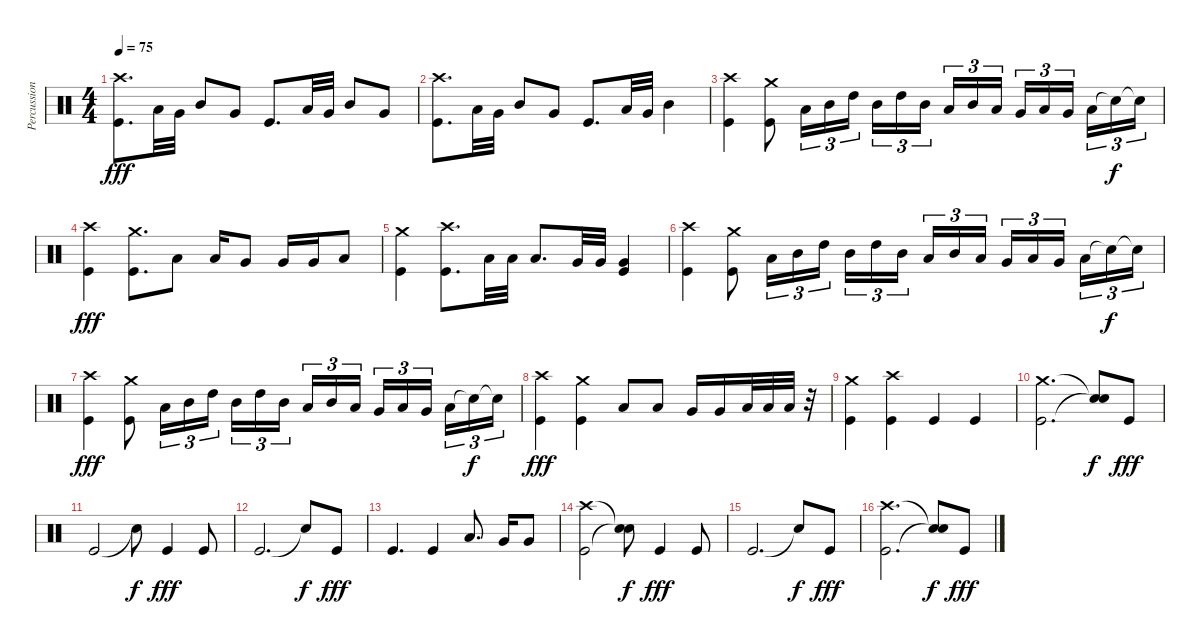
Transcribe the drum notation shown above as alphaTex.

\track ("Percussion" "Percussion") {instrument percussion}
\staff {score}
\articulation defaults
\ts (4 4)
\tempo 75
\clef neutral
\ks c
("Crash high (hit)" "Kick (hit)").8{d dy fff} "Low Floor Tom (hit)".32 "Very Low Tom (hit)".32 "Mid Tom (hit)".8 "Very Low Tom (hit)".8 "Kick (hit)".8{d} "Low Floor Tom (hit)".32 "Very Low Tom (hit)".32 "Mid Tom (hit)".8 "Very Low Tom (hit)".8 |
("Crash high (hit)" "Kick (hit)").8{d} "Low Floor Tom (hit)".32 "Very Low Tom (hit)".32 "Mid Tom (hit)".8 "Very Low Tom (hit)".8 "Kick (hit)".8{d} "Low Floor Tom (hit)".32 "Very Low Tom (hit)".32 "Mid Tom (hit)".4 |
("Crash high (hit)" "Kick (hit)").4{volume 16} ("Crash medium (hit)" "Kick (hit)").8 "Low Tom (hit)".16{tu (3 2)} "Mid Tom (hit)".16{tu (3 2)} "High Tom (hit)".16{tu (3 2)} "Mid Tom (hit)".16{tu (3 2)} "High Tom (hit)".16{tu (3 2)} "Mid Tom (hit)".16{tu (3 2)} "Low Tom (hit)".16{tu (3 2)} "Mid Tom (hit)".16{tu (3 2)} "Low Tom (hit)".16{tu (3 2)} "Very Low Tom (hit)".16{tu (3 2)} "Low Tom (hit)".16{tu (3 2)} "Very Low Tom (hit)".16{tu (3 2)} "Low Floor Tom (hit)".16{tu (3 2)} "Snare (hit)"{t}.16{tu (3 2) dy f} "Snare (hit)"{t}.16{tu (3 2)} |
("Crash high (hit)" "Kick (hit)").4{dy fff} ("Crash medium (hit)" "Kick (hit)").8{d} "Low Tom (hit)".8 "Low Tom (hit)".16 "Very Low Tom (hit)".8 "Very Low Tom (hit)".16 "Very Low Tom (hit)".16 "Low Floor Tom (hit)".8 |
("Crash medium (hit)" "Kick (hit)").4 ("Crash high (hit)" "Kick (hit)").8{d} "Low Tom (hit)".32 "Low Tom (hit)".32 "Low Tom (hit)".8{d} "Very Low Tom (hit)".32 "Very Low Tom (hit)".32 ("Very Low Tom (hit)" "Kick (hit)").4 |
("Crash high (hit)" "Kick (hit)").4 ("Crash medium (hit)" "Kick (hit)").8 "Low Tom (hit)".16{tu (3 2)} "Mid Tom (hit)".16{tu (3 2)} "High Tom (hit)".16{tu (3 2)} "Mid Tom (hit)".16{tu (3 2)} "High Tom (hit)".16{tu (3 2)} "Mid Tom (hit)".16{tu (3 2)} "Low Tom (hit)".16{tu (3 2)} "Mid Tom (hit)".16{tu (3 2)} "Low Tom (hit)".16{tu (3 2)} "Very Low Tom (hit)".16{tu (3 2)} "Low Tom (hit)".16{tu (3 2)} "Very Low Tom (hit)".16{tu (3 2)} "Low Floor Tom (hit)".16{tu (3 2)} "Snare (hit)"{t}.16{tu (3 2) dy f} "Snare (hit)"{t}.16{tu (3 2)} |
("Crash high (hit)" "Kick (hit)").4{dy fff} ("Crash medium (hit)" "Kick (hit)").8 "Low Tom (hit)".16{tu (3 2)} "Mid Tom (hit)".16{tu (3 2)} "High Tom (hit)".16{tu (3 2)} "Mid Tom (hit)".16{tu (3 2)} "High Tom (hit)".16{tu (3 2)} "Mid Tom (hit)".16{tu (3 2)} "Low Tom (hit)".16{tu (3 2)} "Mid Tom (hit)".16{tu (3 2)} "Low Tom (hit)".16{tu (3 2)} "Very Low Tom (hit)".16{tu (3 2)} "Low Tom (hit)".16{tu (3 2)} "Very Low Tom (hit)".16{tu (3 2)} "Low Floor Tom (hit)".16{tu (3 2)} "Snare (hit)"{t}.16{tu (3 2) dy f} "Snare (hit)"{t}.16{tu (3 2)} |
("Crash high (hit)" "Kick (hit)").4{dy fff} ("Crash medium (hit)" "Kick (hit)").4 "Low Tom (hit)".8 "Low Tom (hit)".8 "Very Low Tom (hit)".16 "Very Low Tom (hit)".16 "Low Floor Tom (hit)".32 "Low Floor Tom (hit)".32 "Low Floor Tom (hit)".32 r.32 |
("Crash medium (hit)" "Kick (hit)").4 ("Crash high (hit)" "Kick (hit)").4 "Kick (hit)".4 "Kick (hit)".4 |
("Crash medium (hit)" "Kick (hit)").2{d} ("Snare (hit)"{t} "Snare (hit)"{t}).8{dy f} "Kick (hit)".8{dy fff} |
"Kick (hit)".2 "Snare (hit)"{t}.8{dy f} "Kick (hit)".4{dy fff} "Kick (hit)".8 |
"Kick (hit)".2{d} "Snare (hit)"{t}.8{dy f} "Kick (hit)".8{dy fff} |
"Kick (hit)".4{d} "Kick (hit)".4 "Low Tom (hit)".8{d} "Very Low Tom (hit)".16 "Very Low Tom (hit)".8 |
("Crash high (hit)" "Kick (hit)").2 ("Snare (hit)"{t} "Snare (hit)"{t}).8{dy f} "Kick (hit)".4{dy fff} "Kick (hit)".8 |
"Kick (hit)".2{d} "Snare (hit)"{t}.8{dy f} "Kick (hit)".8{dy fff} |
("Crash high (hit)" "Kick (hit)").2{d} ("Snare (hit)"{t} "Snare (hit)"{t}).8{dy f} "Kick (hit)".8{dy fff}
